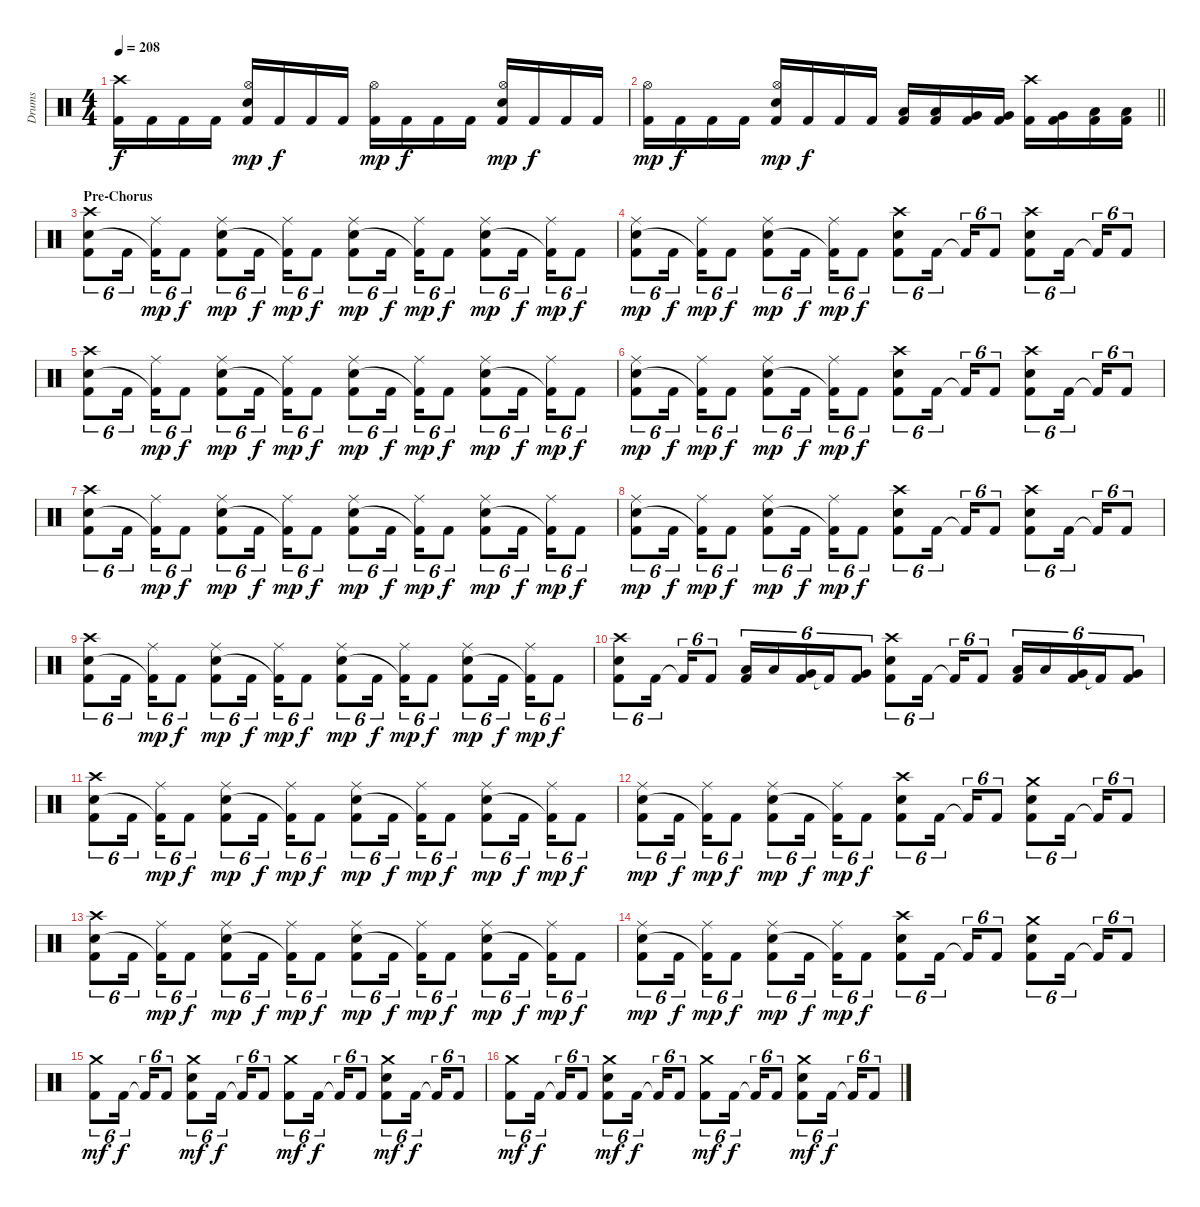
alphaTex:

\track ("Drums" "Drums") {instrument percussion}
\staff {score}
\articulation defaults
\ts (4 4)
\tempo 208
\clef neutral
\ks c
("Crash high (hit)" "Kick (hit) 2").16{dy f} "Kick (hit) 2".16 "Kick (hit) 2".16 "Kick (hit) 2".16 ("Hi-Hat (open)" "Electric Snare (hit)" "Kick (hit) 2").16{dy mp} "Kick (hit) 2".16{dy f} "Kick (hit) 2".16 "Kick (hit) 2".16 ("Hi-Hat (open)" "Kick (hit) 2").16{dy mp} "Kick (hit) 2".16{dy f} "Kick (hit) 2".16 "Kick (hit) 2".16 ("Hi-Hat (open)" "Electric Snare (hit)" "Kick (hit) 2").16{dy mp} "Kick (hit) 2".16{dy f} "Kick (hit) 2".16 "Kick (hit) 2".16 |
\barLineRight lightlight
("Hi-Hat (open)" "Kick (hit) 2").16{dy mp} "Kick (hit) 2".16{dy f} "Kick (hit) 2".16 "Kick (hit) 2".16 ("Hi-Hat (open)" "Electric Snare (hit)" "Kick (hit) 2").16{dy mp} "Kick (hit) 2".16{dy f} "Kick (hit) 2".16 "Kick (hit) 2".16 ("Low Tom (hit)" "Kick (hit) 2").16 ("Low Tom (hit)" "Kick (hit) 2").16 ("Very Low Tom (hit)" "Kick (hit) 2").16 ("Very Low Tom (hit)" "Kick (hit) 2").16 ("Crash high (hit)" "Kick (hit) 2").16 ("Very Low Tom (hit)" "Kick (hit) 2").16 ("Low Floor Tom (hit)" "Kick (hit) 2").16 ("Low Floor Tom (hit)" "Kick (hit) 2").16 |
\section ("" "Pre-Chorus")
("Crash high (hit)" "Electric Snare (hit)" "Kick (hit) 2").8{tu (6 4)} "Kick (hit) 2".16{tu (6 4)} ("Ride (middle)" "Kick (hit) 2"{t}).16{tu (6 4) dy mp} "Kick (hit) 2".8{tu (6 4) dy f} ("Ride (middle)" "Electric Snare (hit)" "Kick (hit) 2").8{tu (6 4) dy mp} "Kick (hit) 2".16{tu (6 4) dy f} ("Ride (middle)" "Kick (hit) 2"{t}).16{tu (6 4) dy mp} "Kick (hit) 2".8{tu (6 4) dy f} ("Ride (middle)" "Electric Snare (hit)" "Kick (hit) 2").8{tu (6 4) dy mp} "Kick (hit) 2".16{tu (6 4) dy f} ("Ride (middle)" "Kick (hit) 2"{t}).16{tu (6 4) dy mp} "Kick (hit) 2".8{tu (6 4) dy f} ("Ride (middle)" "Electric Snare (hit)" "Kick (hit) 2").8{tu (6 4) dy mp} "Kick (hit) 2".16{tu (6 4) dy f} ("Ride (middle)" "Kick (hit) 2"{t}).16{tu (6 4) dy mp} "Kick (hit) 2".8{tu (6 4) dy f} |
("Ride (middle)" "Electric Snare (hit)" "Kick (hit) 2").8{tu (6 4) dy mp} "Kick (hit) 2".16{tu (6 4) dy f} ("Ride (middle)" "Kick (hit) 2"{t}).16{tu (6 4) dy mp} "Kick (hit) 2".8{tu (6 4) dy f} ("Ride (middle)" "Electric Snare (hit)" "Kick (hit) 2").8{tu (6 4) dy mp} "Kick (hit) 2".16{tu (6 4) dy f} ("Ride (middle)" "Kick (hit) 2"{t}).16{tu (6 4) dy mp} "Kick (hit) 2".8{tu (6 4) dy f} ("Crash high (hit)" "Electric Snare (hit)" "Kick (hit) 2").8{tu (6 4)} "Kick (hit) 2".16{tu (6 4)} "Kick (hit) 2"{t}.16{tu (6 4)} "Kick (hit) 2".8{tu (6 4)} ("Crash high (hit)" "Electric Snare (hit)" "Kick (hit) 2").8{tu (6 4)} "Kick (hit) 2".16{tu (6 4)} "Kick (hit) 2"{t}.16{tu (6 4)} "Kick (hit) 2".8{tu (6 4)} |
("Crash high (hit)" "Electric Snare (hit)" "Kick (hit) 2").8{tu (6 4)} "Kick (hit) 2".16{tu (6 4)} ("Ride (middle)" "Kick (hit) 2"{t}).16{tu (6 4) dy mp} "Kick (hit) 2".8{tu (6 4) dy f} ("Ride (middle)" "Electric Snare (hit)" "Kick (hit) 2").8{tu (6 4) dy mp} "Kick (hit) 2".16{tu (6 4) dy f} ("Ride (middle)" "Kick (hit) 2"{t}).16{tu (6 4) dy mp} "Kick (hit) 2".8{tu (6 4) dy f} ("Ride (middle)" "Electric Snare (hit)" "Kick (hit) 2").8{tu (6 4) dy mp} "Kick (hit) 2".16{tu (6 4) dy f} ("Ride (middle)" "Kick (hit) 2"{t}).16{tu (6 4) dy mp} "Kick (hit) 2".8{tu (6 4) dy f} ("Ride (middle)" "Electric Snare (hit)" "Kick (hit) 2").8{tu (6 4) dy mp} "Kick (hit) 2".16{tu (6 4) dy f} ("Ride (middle)" "Kick (hit) 2"{t}).16{tu (6 4) dy mp} "Kick (hit) 2".8{tu (6 4) dy f} |
("Ride (middle)" "Electric Snare (hit)" "Kick (hit) 2").8{tu (6 4) dy mp} "Kick (hit) 2".16{tu (6 4) dy f} ("Ride (middle)" "Kick (hit) 2"{t}).16{tu (6 4) dy mp} "Kick (hit) 2".8{tu (6 4) dy f} ("Ride (middle)" "Electric Snare (hit)" "Kick (hit) 2").8{tu (6 4) dy mp} "Kick (hit) 2".16{tu (6 4) dy f} ("Ride (middle)" "Kick (hit) 2"{t}).16{tu (6 4) dy mp} "Kick (hit) 2".8{tu (6 4) dy f} ("Crash high (hit)" "Electric Snare (hit)" "Kick (hit) 2").8{tu (6 4)} "Kick (hit) 2".16{tu (6 4)} "Kick (hit) 2"{t}.16{tu (6 4)} "Kick (hit) 2".8{tu (6 4)} ("Crash high (hit)" "Electric Snare (hit)" "Kick (hit) 2").8{tu (6 4)} "Kick (hit) 2".16{tu (6 4)} "Kick (hit) 2"{t}.16{tu (6 4)} "Kick (hit) 2".8{tu (6 4)} |
("Crash high (hit)" "Electric Snare (hit)" "Kick (hit) 2").8{tu (6 4)} "Kick (hit) 2".16{tu (6 4)} ("Ride (middle)" "Kick (hit) 2"{t}).16{tu (6 4) dy mp} "Kick (hit) 2".8{tu (6 4) dy f} ("Ride (middle)" "Electric Snare (hit)" "Kick (hit) 2").8{tu (6 4) dy mp} "Kick (hit) 2".16{tu (6 4) dy f} ("Ride (middle)" "Kick (hit) 2"{t}).16{tu (6 4) dy mp} "Kick (hit) 2".8{tu (6 4) dy f} ("Ride (middle)" "Electric Snare (hit)" "Kick (hit) 2").8{tu (6 4) dy mp} "Kick (hit) 2".16{tu (6 4) dy f} ("Ride (middle)" "Kick (hit) 2"{t}).16{tu (6 4) dy mp} "Kick (hit) 2".8{tu (6 4) dy f} ("Ride (middle)" "Electric Snare (hit)" "Kick (hit) 2").8{tu (6 4) dy mp} "Kick (hit) 2".16{tu (6 4) dy f} ("Ride (middle)" "Kick (hit) 2"{t}).16{tu (6 4) dy mp} "Kick (hit) 2".8{tu (6 4) dy f} |
("Ride (middle)" "Electric Snare (hit)" "Kick (hit) 2").8{tu (6 4) dy mp} "Kick (hit) 2".16{tu (6 4) dy f} ("Ride (middle)" "Kick (hit) 2"{t}).16{tu (6 4) dy mp} "Kick (hit) 2".8{tu (6 4) dy f} ("Ride (middle)" "Electric Snare (hit)" "Kick (hit) 2").8{tu (6 4) dy mp} "Kick (hit) 2".16{tu (6 4) dy f} ("Ride (middle)" "Kick (hit) 2"{t}).16{tu (6 4) dy mp} "Kick (hit) 2".8{tu (6 4) dy f} ("Crash high (hit)" "Electric Snare (hit)" "Kick (hit) 2").8{tu (6 4)} "Kick (hit) 2".16{tu (6 4)} "Kick (hit) 2"{t}.16{tu (6 4)} "Kick (hit) 2".8{tu (6 4)} ("Crash high (hit)" "Electric Snare (hit)" "Kick (hit) 2").8{tu (6 4)} "Kick (hit) 2".16{tu (6 4)} "Kick (hit) 2"{t}.16{tu (6 4)} "Kick (hit) 2".8{tu (6 4)} |
("Crash high (hit)" "Electric Snare (hit)" "Kick (hit) 2").8{tu (6 4)} "Kick (hit) 2".16{tu (6 4)} ("Ride (middle)" "Kick (hit) 2"{t}).16{tu (6 4) dy mp} "Kick (hit) 2".8{tu (6 4) dy f} ("Ride (middle)" "Electric Snare (hit)" "Kick (hit) 2").8{tu (6 4) dy mp} "Kick (hit) 2".16{tu (6 4) dy f} ("Ride (middle)" "Kick (hit) 2"{t}).16{tu (6 4) dy mp} "Kick (hit) 2".8{tu (6 4) dy f} ("Ride (middle)" "Electric Snare (hit)" "Kick (hit) 2").8{tu (6 4) dy mp} "Kick (hit) 2".16{tu (6 4) dy f} ("Ride (middle)" "Kick (hit) 2"{t}).16{tu (6 4) dy mp} "Kick (hit) 2".8{tu (6 4) dy f} ("Ride (middle)" "Electric Snare (hit)" "Kick (hit) 2").8{tu (6 4) dy mp} "Kick (hit) 2".16{tu (6 4) dy f} ("Ride (middle)" "Kick (hit) 2"{t}).16{tu (6 4) dy mp} "Kick (hit) 2".8{tu (6 4) dy f} |
("Crash high (hit)" "Electric Snare (hit)" "Kick (hit) 2").8{tu (6 4)} "Kick (hit) 2".16{tu (6 4)} "Kick (hit) 2"{t}.16{tu (6 4)} "Kick (hit) 2".8{tu (6 4)} ("Low Tom (hit)" "Kick (hit) 2").16{tu (6 4)} "Low Tom (hit)".16{tu (6 4)} ("Very Low Tom (hit)" "Kick (hit) 2").16{tu (6 4)} "Kick (hit) 2"{t}.16{tu (6 4)} ("Very Low Tom (hit)" "Kick (hit) 2").8{tu (6 4)} ("Crash high (hit)" "Electric Snare (hit)" "Kick (hit) 2").8{tu (6 4)} "Kick (hit) 2".16{tu (6 4)} "Kick (hit) 2"{t}.16{tu (6 4)} "Kick (hit) 2".8{tu (6 4)} ("Low Tom (hit)" "Kick (hit) 2").16{tu (6 4)} "Low Tom (hit)".16{tu (6 4)} ("Very Low Tom (hit)" "Kick (hit) 2").16{tu (6 4)} "Kick (hit) 2"{t}.16{tu (6 4)} ("Very Low Tom (hit)" "Kick (hit) 2").8{tu (6 4)} |
("Crash high (hit)" "Electric Snare (hit)" "Kick (hit) 2").8{tu (6 4)} "Kick (hit) 2".16{tu (6 4)} ("Ride (middle)" "Kick (hit) 2"{t}).16{tu (6 4) dy mp} "Kick (hit) 2".8{tu (6 4) dy f} ("Ride (middle)" "Electric Snare (hit)" "Kick (hit) 2").8{tu (6 4) dy mp} "Kick (hit) 2".16{tu (6 4) dy f} ("Ride (middle)" "Kick (hit) 2"{t}).16{tu (6 4) dy mp} "Kick (hit) 2".8{tu (6 4) dy f} ("Ride (middle)" "Electric Snare (hit)" "Kick (hit) 2").8{tu (6 4) dy mp} "Kick (hit) 2".16{tu (6 4) dy f} ("Ride (middle)" "Kick (hit) 2"{t}).16{tu (6 4) dy mp} "Kick (hit) 2".8{tu (6 4) dy f} ("Ride (middle)" "Electric Snare (hit)" "Kick (hit) 2").8{tu (6 4) dy mp} "Kick (hit) 2".16{tu (6 4) dy f} ("Ride (middle)" "Kick (hit) 2"{t}).16{tu (6 4) dy mp} "Kick (hit) 2".8{tu (6 4) dy f} |
("Ride (middle)" "Electric Snare (hit)" "Kick (hit) 2").8{tu (6 4) dy mp} "Kick (hit) 2".16{tu (6 4) dy f} ("Ride (middle)" "Kick (hit) 2"{t}).16{tu (6 4) dy mp} "Kick (hit) 2".8{tu (6 4) dy f} ("Ride (middle)" "Electric Snare (hit)" "Kick (hit) 2").8{tu (6 4) dy mp} "Kick (hit) 2".16{tu (6 4) dy f} ("Ride (middle)" "Kick (hit) 2"{t}).16{tu (6 4) dy mp} "Kick (hit) 2".8{tu (6 4) dy f} ("Crash high (hit)" "Electric Snare (hit)" "Kick (hit) 2").8{tu (6 4)} "Kick (hit) 2".16{tu (6 4)} "Kick (hit) 2"{t}.16{tu (6 4)} "Kick (hit) 2".8{tu (6 4)} ("Crash medium (hit)" "Electric Snare (hit)" "Kick (hit) 2").8{tu (6 4)} "Kick (hit) 2".16{tu (6 4)} "Kick (hit) 2"{t}.16{tu (6 4)} "Kick (hit) 2".8{tu (6 4)} |
("Crash high (hit)" "Electric Snare (hit)" "Kick (hit) 2").8{tu (6 4)} "Kick (hit) 2".16{tu (6 4)} ("Ride (middle)" "Kick (hit) 2"{t}).16{tu (6 4) dy mp} "Kick (hit) 2".8{tu (6 4) dy f} ("Ride (middle)" "Electric Snare (hit)" "Kick (hit) 2").8{tu (6 4) dy mp} "Kick (hit) 2".16{tu (6 4) dy f} ("Ride (middle)" "Kick (hit) 2"{t}).16{tu (6 4) dy mp} "Kick (hit) 2".8{tu (6 4) dy f} ("Ride (middle)" "Electric Snare (hit)" "Kick (hit) 2").8{tu (6 4) dy mp} "Kick (hit) 2".16{tu (6 4) dy f} ("Ride (middle)" "Kick (hit) 2"{t}).16{tu (6 4) dy mp} "Kick (hit) 2".8{tu (6 4) dy f} ("Ride (middle)" "Electric Snare (hit)" "Kick (hit) 2").8{tu (6 4) dy mp} "Kick (hit) 2".16{tu (6 4) dy f} ("Ride (middle)" "Kick (hit) 2"{t}).16{tu (6 4) dy mp} "Kick (hit) 2".8{tu (6 4) dy f} |
("Ride (middle)" "Electric Snare (hit)" "Kick (hit) 2").8{tu (6 4) dy mp} "Kick (hit) 2".16{tu (6 4) dy f} ("Ride (middle)" "Kick (hit) 2"{t}).16{tu (6 4) dy mp} "Kick (hit) 2".8{tu (6 4) dy f} ("Ride (middle)" "Electric Snare (hit)" "Kick (hit) 2").8{tu (6 4) dy mp} "Kick (hit) 2".16{tu (6 4) dy f} ("Ride (middle)" "Kick (hit) 2"{t}).16{tu (6 4) dy mp} "Kick (hit) 2".8{tu (6 4) dy f} ("Crash high (hit)" "Electric Snare (hit)" "Kick (hit) 2").8{tu (6 4)} "Kick (hit) 2".16{tu (6 4)} "Kick (hit) 2"{t}.16{tu (6 4)} "Kick (hit) 2".8{tu (6 4)} ("Crash medium (hit)" "Electric Snare (hit)" "Kick (hit) 2").8{tu (6 4)} "Kick (hit) 2".16{tu (6 4)} "Kick (hit) 2"{t}.16{tu (6 4)} "Kick (hit) 2".8{tu (6 4)} |
("Crash medium (hit)" "Kick (hit) 2").8{tu (6 4) dy mf} "Kick (hit) 2".16{tu (6 4) dy f} "Kick (hit) 2"{t}.16{tu (6 4)} "Kick (hit) 2".8{tu (6 4)} ("Crash medium (hit)" "Electric Snare (hit)" "Kick (hit) 2").8{tu (6 4) dy mf} "Kick (hit) 2".16{tu (6 4) dy f} "Kick (hit) 2"{t}.16{tu (6 4)} "Kick (hit) 2".8{tu (6 4)} ("Crash medium (hit)" "Kick (hit) 2").8{tu (6 4) dy mf} "Kick (hit) 2".16{tu (6 4) dy f} "Kick (hit) 2"{t}.16{tu (6 4)} "Kick (hit) 2".8{tu (6 4)} ("Crash medium (hit)" "Electric Snare (hit)" "Kick (hit) 2").8{tu (6 4) dy mf} "Kick (hit) 2".16{tu (6 4) dy f} "Kick (hit) 2"{t}.16{tu (6 4)} "Kick (hit) 2".8{tu (6 4)} |
("Crash medium (hit)" "Kick (hit) 2").8{tu (6 4) dy mf} "Kick (hit) 2".16{tu (6 4) dy f} "Kick (hit) 2"{t}.16{tu (6 4)} "Kick (hit) 2".8{tu (6 4)} ("Crash medium (hit)" "Electric Snare (hit)" "Kick (hit) 2").8{tu (6 4) dy mf} "Kick (hit) 2".16{tu (6 4) dy f} "Kick (hit) 2"{t}.16{tu (6 4)} "Kick (hit) 2".8{tu (6 4)} ("Crash medium (hit)" "Kick (hit) 2").8{tu (6 4) dy mf} "Kick (hit) 2".16{tu (6 4) dy f} "Kick (hit) 2"{t}.16{tu (6 4)} "Kick (hit) 2".8{tu (6 4)} ("Crash medium (hit)" "Electric Snare (hit)" "Kick (hit) 2").8{tu (6 4) dy mf} "Kick (hit) 2".16{tu (6 4) dy f} "Kick (hit) 2"{t}.16{tu (6 4)} "Kick (hit) 2".8{tu (6 4)}
